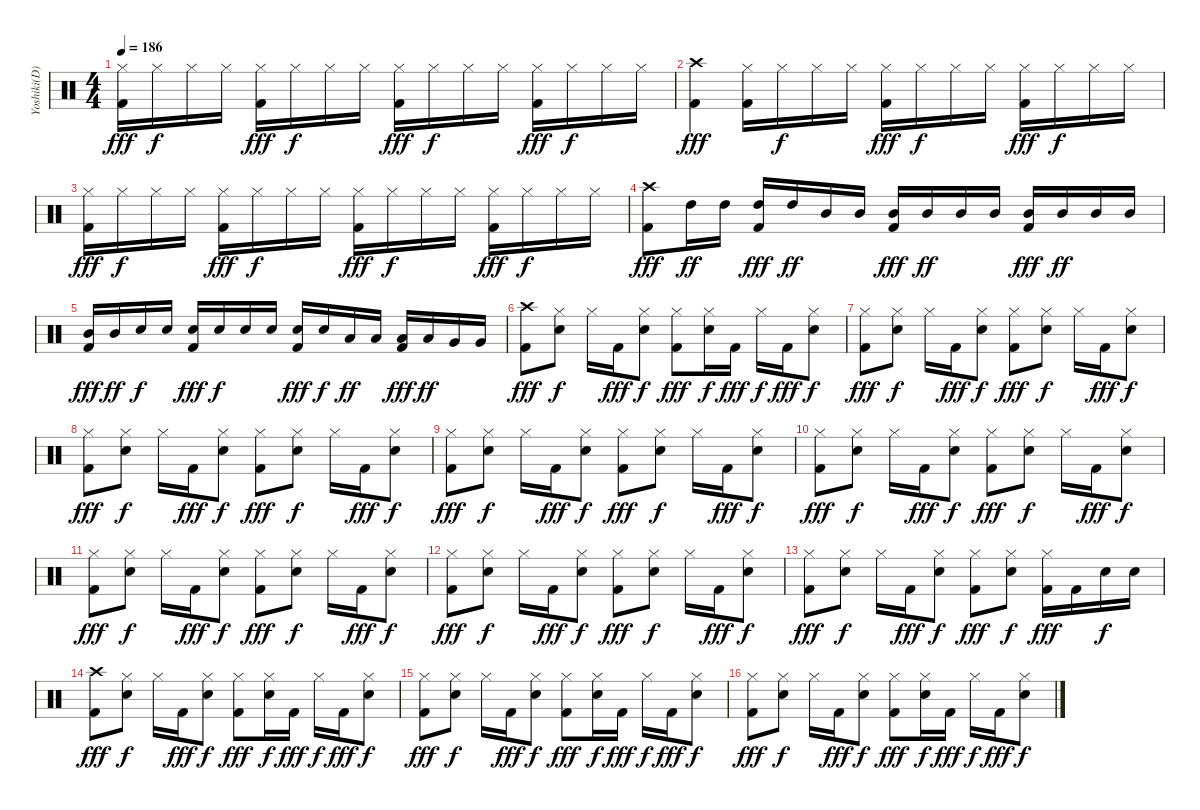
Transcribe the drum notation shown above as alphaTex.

\track ("Yoshiki(D)" "Yoshiki(D)") {instrument percussion}
\staff {score}
\articulation defaults
\ts (4 4)
\tempo 186
\clef neutral
\ks c
("Hi-Hat (closed)" "Kick (hit) 2").16{dy fff} "Hi-Hat (closed)".16{dy f} "Hi-Hat (closed)".16 "Hi-Hat (closed)".16 ("Hi-Hat (closed)" "Kick (hit) 2").16{dy fff} "Hi-Hat (closed)".16{dy f} "Hi-Hat (closed)".16 "Hi-Hat (closed)".16 ("Hi-Hat (closed)" "Kick (hit) 2").16{dy fff} "Hi-Hat (closed)".16{dy f} "Hi-Hat (closed)".16 "Hi-Hat (closed)".16 ("Hi-Hat (closed)" "Kick (hit) 2").16{dy fff} "Hi-Hat (closed)".16{dy f} "Hi-Hat (closed)".16 "Hi-Hat (closed)".16 |
("Crash high (hit)" "Kick (hit) 2").4{dy fff} ("Hi-Hat (closed)" "Kick (hit) 2").16 "Hi-Hat (closed)".16{dy f} "Hi-Hat (closed)".16 "Hi-Hat (closed)".16 ("Hi-Hat (closed)" "Kick (hit) 2").16{dy fff} "Hi-Hat (closed)".16{dy f} "Hi-Hat (closed)".16 "Hi-Hat (closed)".16 ("Hi-Hat (closed)" "Kick (hit) 2").16{dy fff} "Hi-Hat (closed)".16{dy f} "Hi-Hat (closed)".16 "Hi-Hat (closed)".16 |
("Hi-Hat (closed)" "Kick (hit) 2").16{dy fff} "Hi-Hat (closed)".16{dy f} "Hi-Hat (closed)".16 "Hi-Hat (closed)".16 ("Hi-Hat (closed)" "Kick (hit) 2").16{dy fff} "Hi-Hat (closed)".16{dy f} "Hi-Hat (closed)".16 "Hi-Hat (closed)".16 ("Hi-Hat (closed)" "Kick (hit) 2").16{dy fff} "Hi-Hat (closed)".16{dy f} "Hi-Hat (closed)".16 "Hi-Hat (closed)".16 ("Hi-Hat (closed)" "Kick (hit) 2").16{dy fff} "Hi-Hat (closed)".16{dy f} "Hi-Hat (closed)".16 "Hi-Hat (closed)".16 |
("Crash high (hit)" "Kick (hit) 2").8{dy fff} "High Tom (hit)".16{dy ff} "High Tom (hit)".16 ("High Tom (hit)" "Kick (hit) 2").16{dy fff} "High Tom (hit)".16{dy ff} "Mid Tom (hit)".16 "Mid Tom (hit)".16 ("Mid Tom (hit)" "Kick (hit) 2").16{dy fff} "Mid Tom (hit)".16{dy ff} "Mid Tom (hit)".16 "Mid Tom (hit)".16 ("Mid Tom (hit)" "Kick (hit) 2").16{dy fff} "Mid Tom (hit)".16{dy ff} "Mid Tom (hit)".16 "Mid Tom (hit)".16 |
("Mid Tom (hit)" "Kick (hit) 2").16{dy fff} "Mid Tom (hit)".16{dy ff} "Electric Snare (hit)".16{dy f} "Electric Snare (hit)".16 ("Electric Snare (hit)" "Kick (hit) 2").16{dy fff} "Electric Snare (hit)".16{dy f} "Electric Snare (hit)".16 "Electric Snare (hit)".16 ("Electric Snare (hit)" "Kick (hit) 2").16{dy fff} "Electric Snare (hit)".16{dy f} "Low Tom (hit)".16{dy ff} "Low Tom (hit)".16 ("Low Tom (hit)" "Kick (hit) 2").16{dy fff} "Low Tom (hit)".16{dy ff} "Very Low Tom (hit)".16 "Very Low Tom (hit)".16 |
("Crash high (hit)" "Kick (hit) 2").8{dy fff} ("Hi-Hat (closed)" "Electric Snare (hit)").8{dy f} "Hi-Hat (closed)".16 "Kick (hit) 2".16{dy fff} ("Hi-Hat (closed)" "Electric Snare (hit)").8{dy f} ("Hi-Hat (closed)" "Kick (hit) 2").8{dy fff} ("Hi-Hat (closed)" "Electric Snare (hit)").16{dy f} "Kick (hit) 2".16{dy fff} "Hi-Hat (closed)".16{dy f} "Kick (hit) 2".16{dy fff} ("Hi-Hat (closed)" "Electric Snare (hit)").8{dy f} |
("Hi-Hat (closed)" "Kick (hit) 2").8{dy fff} ("Hi-Hat (closed)" "Electric Snare (hit)").8{dy f} "Hi-Hat (closed)".16 "Kick (hit) 2".16{dy fff} ("Hi-Hat (closed)" "Electric Snare (hit)").8{dy f} ("Hi-Hat (closed)" "Kick (hit) 2").8{dy fff} ("Hi-Hat (closed)" "Electric Snare (hit)").8{dy f} "Hi-Hat (closed)".16 "Kick (hit) 2".16{dy fff} ("Hi-Hat (closed)" "Electric Snare (hit)").8{dy f} |
("Hi-Hat (closed)" "Kick (hit) 2").8{dy fff} ("Hi-Hat (closed)" "Electric Snare (hit)").8{dy f} "Hi-Hat (closed)".16 "Kick (hit) 2".16{dy fff} ("Hi-Hat (closed)" "Electric Snare (hit)").8{dy f} ("Hi-Hat (closed)" "Kick (hit) 2").8{dy fff} ("Hi-Hat (closed)" "Electric Snare (hit)").8{dy f} "Hi-Hat (closed)".16 "Kick (hit) 2".16{dy fff} ("Hi-Hat (closed)" "Electric Snare (hit)").8{dy f} |
("Hi-Hat (closed)" "Kick (hit) 2").8{dy fff} ("Hi-Hat (closed)" "Electric Snare (hit)").8{dy f} "Hi-Hat (closed)".16 "Kick (hit) 2".16{dy fff} ("Hi-Hat (closed)" "Electric Snare (hit)").8{dy f} ("Hi-Hat (closed)" "Kick (hit) 2").8{dy fff} ("Hi-Hat (closed)" "Electric Snare (hit)").8{dy f} "Hi-Hat (closed)".16 "Kick (hit) 2".16{dy fff} ("Hi-Hat (closed)" "Electric Snare (hit)").8{dy f} |
("Hi-Hat (closed)" "Kick (hit) 2").8{dy fff} ("Hi-Hat (closed)" "Electric Snare (hit)").8{dy f} "Hi-Hat (closed)".16 "Kick (hit) 2".16{dy fff} ("Hi-Hat (closed)" "Electric Snare (hit)").8{dy f} ("Hi-Hat (closed)" "Kick (hit) 2").8{dy fff} ("Hi-Hat (closed)" "Electric Snare (hit)").8{dy f} "Hi-Hat (closed)".16 "Kick (hit) 2".16{dy fff} ("Hi-Hat (closed)" "Electric Snare (hit)").8{dy f} |
("Hi-Hat (closed)" "Kick (hit) 2").8{dy fff} ("Hi-Hat (closed)" "Electric Snare (hit)").8{dy f} "Hi-Hat (closed)".16 "Kick (hit) 2".16{dy fff} ("Hi-Hat (closed)" "Electric Snare (hit)").8{dy f} ("Hi-Hat (closed)" "Kick (hit) 2").8{dy fff} ("Hi-Hat (closed)" "Electric Snare (hit)").8{dy f} "Hi-Hat (closed)".16 "Kick (hit) 2".16{dy fff} ("Hi-Hat (closed)" "Electric Snare (hit)").8{dy f} |
("Hi-Hat (closed)" "Kick (hit) 2").8{dy fff} ("Hi-Hat (closed)" "Electric Snare (hit)").8{dy f} "Hi-Hat (closed)".16 "Kick (hit) 2".16{dy fff} ("Hi-Hat (closed)" "Electric Snare (hit)").8{dy f} ("Hi-Hat (closed)" "Kick (hit) 2").8{dy fff} ("Hi-Hat (closed)" "Electric Snare (hit)").8{dy f} "Hi-Hat (closed)".16 "Kick (hit) 2".16{dy fff} ("Hi-Hat (closed)" "Electric Snare (hit)").8{dy f} |
("Hi-Hat (closed)" "Kick (hit) 2").8{dy fff} ("Hi-Hat (closed)" "Electric Snare (hit)").8{dy f} "Hi-Hat (closed)".16 "Kick (hit) 2".16{dy fff} ("Hi-Hat (closed)" "Electric Snare (hit)").8{dy f} ("Hi-Hat (closed)" "Kick (hit) 2").8{dy fff} ("Hi-Hat (closed)" "Electric Snare (hit)").8{dy f} ("Hi-Hat (closed)" "Kick (hit) 2").16{dy fff} "Kick (hit) 2".16 "Electric Snare (hit)".16{dy f} "Electric Snare (hit)".16 |
("Crash high (hit)" "Kick (hit) 2").8{dy fff} ("Hi-Hat (closed)" "Electric Snare (hit)").8{dy f} "Hi-Hat (closed)".16 "Kick (hit) 2".16{dy fff} ("Hi-Hat (closed)" "Electric Snare (hit)").8{dy f} ("Hi-Hat (closed)" "Kick (hit) 2").8{dy fff} ("Hi-Hat (closed)" "Electric Snare (hit)").16{dy f} "Kick (hit) 2".16{dy fff} "Hi-Hat (closed)".16{dy f} "Kick (hit) 2".16{dy fff} ("Hi-Hat (closed)" "Electric Snare (hit)").8{dy f} |
("Hi-Hat (closed)" "Kick (hit) 2").8{dy fff} ("Hi-Hat (closed)" "Electric Snare (hit)").8{dy f} "Hi-Hat (closed)".16 "Kick (hit) 2".16{dy fff} ("Hi-Hat (closed)" "Electric Snare (hit)").8{dy f} ("Hi-Hat (closed)" "Kick (hit) 2").8{dy fff} ("Hi-Hat (closed)" "Electric Snare (hit)").16{dy f} "Kick (hit) 2".16{dy fff} "Hi-Hat (closed)".16{dy f} "Kick (hit) 2".16{dy fff} ("Hi-Hat (closed)" "Electric Snare (hit)").8{dy f} |
("Hi-Hat (closed)" "Kick (hit) 2").8{dy fff} ("Hi-Hat (closed)" "Electric Snare (hit)").8{dy f} "Hi-Hat (closed)".16 "Kick (hit) 2".16{dy fff} ("Hi-Hat (closed)" "Electric Snare (hit)").8{dy f} ("Hi-Hat (closed)" "Kick (hit) 2").8{dy fff} ("Hi-Hat (closed)" "Electric Snare (hit)").16{dy f} "Kick (hit) 2".16{dy fff} "Hi-Hat (closed)".16{dy f} "Kick (hit) 2".16{dy fff} ("Hi-Hat (closed)" "Electric Snare (hit)").8{dy f}
